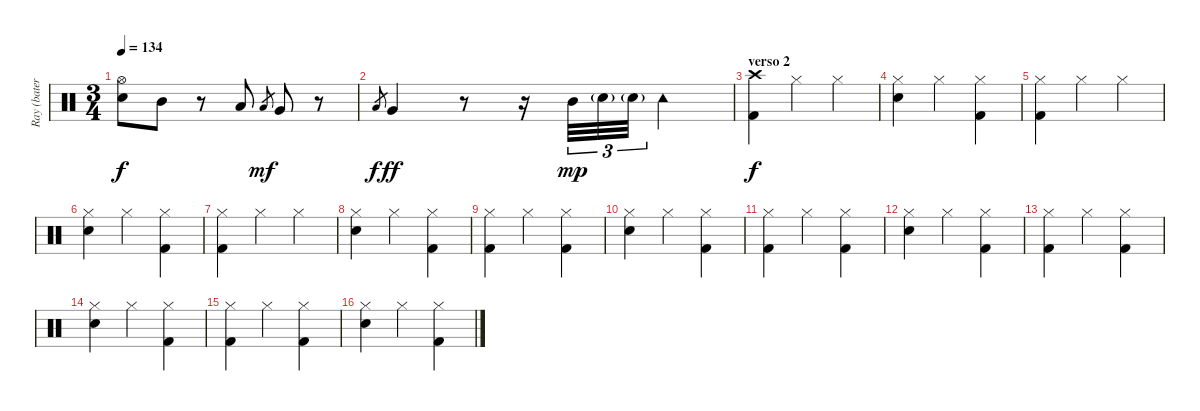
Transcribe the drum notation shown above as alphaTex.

\track ("Ray (batería)" "Ray (bater") {instrument percussion}
\staff {score}
\articulation defaults
\ts (3 4)
\tempo 134
\clef neutral
\ks c
("Hi-Hat (open)" "Snare (hit) 2").8{dy f} "Mid Tom (hit)".8 r.8 "Low Tom (hit)".8 "Low Tom (hit)".8{gr dy mf} "Very Low Tom (hit)".8 r.8 |
"Low Tom (hit)".8{gr dy f} "Very Low Tom (hit)".4{dy ff} r.8 r.16 "Mid Tom (hit)".32{tu (3 2) dy mp} "Snare (hit) 2"{g}.32{tu (3 2)} "Snare (hit) 2"{g}.32{tu (3 2)} "Tambourine (hit)".4 |
\section ("" "verso 2")
("Crash high (hit)" "Kick (hit) 2").4{dy f} "Hi-Hat (closed)".4 "Hi-Hat (closed)".4 |
("Hi-Hat (closed)" "Snare (hit) 2").4 "Hi-Hat (closed)".4 ("Hi-Hat (closed)" "Kick (hit) 2").4 |
("Hi-Hat (closed)" "Kick (hit) 2").4 "Hi-Hat (closed)".4 "Hi-Hat (closed)".4 |
("Hi-Hat (closed)" "Snare (hit) 2").4 "Hi-Hat (closed)".4 ("Hi-Hat (closed)" "Kick (hit) 2").4 |
("Hi-Hat (closed)" "Kick (hit) 2").4 "Hi-Hat (closed)".4 "Hi-Hat (closed)".4 |
("Hi-Hat (closed)" "Snare (hit) 2").4 "Hi-Hat (closed)".4 ("Hi-Hat (closed)" "Kick (hit) 2").4 |
("Hi-Hat (closed)" "Kick (hit) 2").4 "Hi-Hat (closed)".4 ("Hi-Hat (closed)" "Kick (hit) 2").4 |
("Hi-Hat (closed)" "Snare (hit) 2").4 "Hi-Hat (closed)".4 ("Hi-Hat (closed)" "Kick (hit) 2").4 |
("Hi-Hat (closed)" "Kick (hit) 2").4 "Hi-Hat (closed)".4 ("Hi-Hat (closed)" "Kick (hit) 2").4 |
("Hi-Hat (closed)" "Snare (hit) 2").4 "Hi-Hat (closed)".4 ("Hi-Hat (closed)" "Kick (hit) 2").4 |
("Hi-Hat (closed)" "Kick (hit) 2").4 "Hi-Hat (closed)".4 ("Hi-Hat (closed)" "Kick (hit) 2").4 |
("Hi-Hat (closed)" "Snare (hit) 2").4 "Hi-Hat (closed)".4 ("Hi-Hat (closed)" "Kick (hit) 2").4 |
("Hi-Hat (closed)" "Kick (hit) 2").4 "Hi-Hat (closed)".4 ("Hi-Hat (closed)" "Kick (hit) 2").4 |
("Hi-Hat (closed)" "Snare (hit) 2").4 "Hi-Hat (closed)".4 ("Hi-Hat (closed)" "Kick (hit) 2").4
